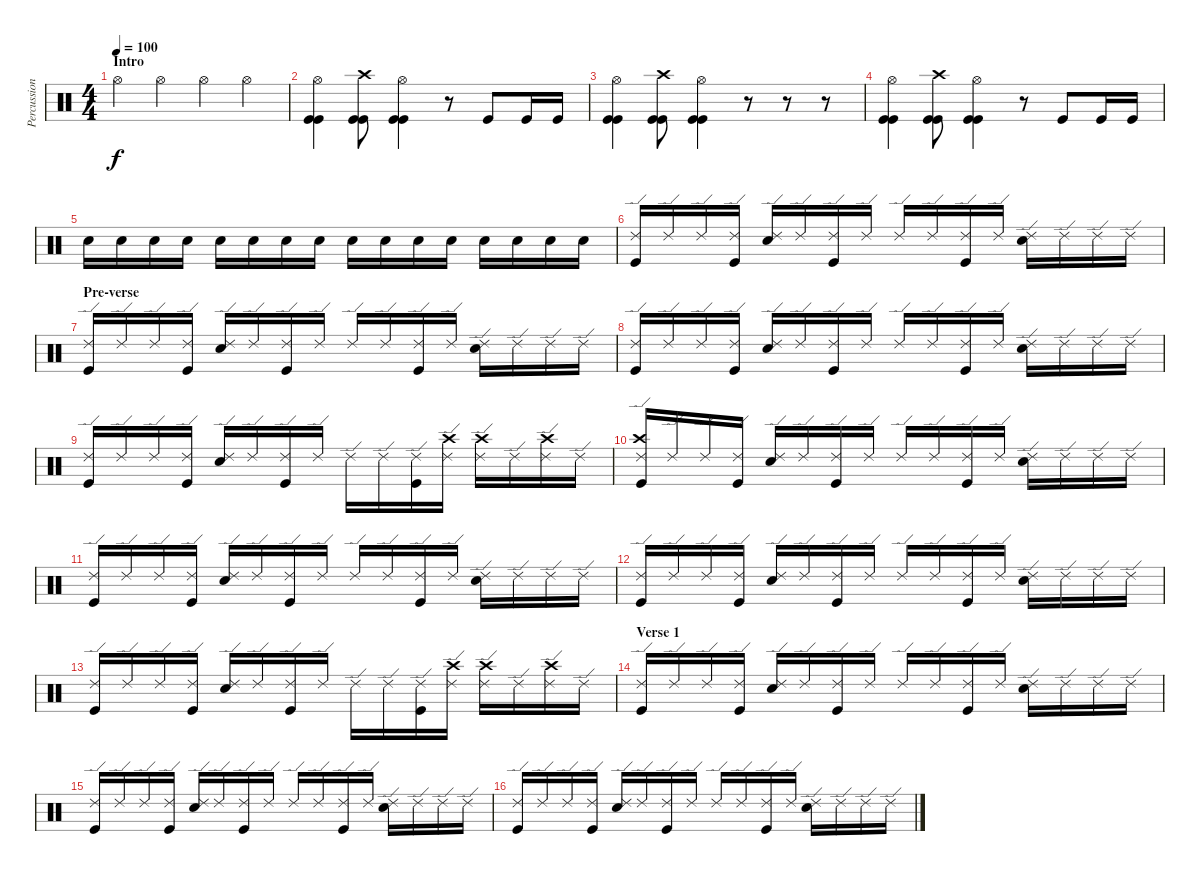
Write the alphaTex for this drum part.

\track ("Percussion" "Percussion") {instrument percussion}
\staff {score}
\articulation defaults
\ts (4 4)
\section ("" "Intro")
\tempo 100
\clef neutral
\ks c "Hi-Hat (open)".4{dy f} "Hi-Hat (open)".4 "Hi-Hat (open)".4 "Hi-Hat (open)".4
|
("Hi-Hat (open)" "Kick (hit)" "Kick (hit)").4 ("Crash high (hit)" "Kick (hit)" "Kick (hit)").8 ("Hi-Hat (open)" "Kick (hit)" "Kick (hit)").4 r.8 "Kick (hit)".8 "Kick (hit)".16 "Kick (hit)".16 |
("Hi-Hat (open)" "Kick (hit)" "Kick (hit)").4 ("Crash high (hit)" "Kick (hit)" "Kick (hit)").8 ("Hi-Hat (open)" "Kick (hit)" "Kick (hit)").4 r.8 r.8 r.8 |
("Hi-Hat (open)" "Kick (hit)" "Kick (hit)").4 ("Crash high (hit)" "Kick (hit)" "Kick (hit)").8 ("Hi-Hat (open)" "Kick (hit)" "Kick (hit)").4 r.8 "Kick (hit)".8 "Kick (hit)".16 "Kick (hit)".16 |
"Snare (hit) 2".16 "Snare (hit) 2".16 "Snare (hit) 2".16 "Snare (hit) 2".16 "Snare (hit) 2".16 "Snare (hit) 2".16 "Snare (hit) 2".16 "Snare (hit) 2".16 "Snare (hit) 2".16 "Snare (hit) 2".16 "Snare (hit) 2".16 "Snare (hit) 2".16 "Snare (hit) 2".16 "Snare (hit) 2".16 "Snare (hit) 2".16 "Snare (hit) 2".16 |
("Ride (edge) 2" "Kick (hit)").16 "Ride (edge) 2".16 "Ride (edge) 2".16 ("Ride (edge) 2" "Kick (hit)").16 ("Ride (edge) 2" "Snare (hit) 2").16 "Ride (edge) 2".16 ("Ride (edge) 2" "Kick (hit)").16 "Ride (edge) 2".16 "Ride (edge) 2".16 "Ride (edge) 2".16 ("Ride (edge) 2" "Kick (hit)").16 "Ride (edge) 2".16 ("Ride (edge) 2" "Snare (hit) 2").16 "Ride (edge) 2".16 "Ride (edge) 2".16 "Ride (edge) 2".16 |
\section ("" "Pre-verse")
("Ride (edge) 2" "Kick (hit)").16 "Ride (edge) 2".16 "Ride (edge) 2".16 ("Ride (edge) 2" "Kick (hit)").16 ("Ride (edge) 2" "Snare (hit) 2").16 "Ride (edge) 2".16 ("Ride (edge) 2" "Kick (hit)").16 "Ride (edge) 2".16 "Ride (edge) 2".16 "Ride (edge) 2".16 ("Ride (edge) 2" "Kick (hit)").16 "Ride (edge) 2".16 ("Ride (edge) 2" "Snare (hit) 2").16 "Ride (edge) 2".16 "Ride (edge) 2".16 "Ride (edge) 2".16 |
("Ride (edge) 2" "Kick (hit)").16 "Ride (edge) 2".16 "Ride (edge) 2".16 ("Ride (edge) 2" "Kick (hit)").16 ("Ride (edge) 2" "Snare (hit) 2").16 "Ride (edge) 2".16 ("Ride (edge) 2" "Kick (hit)").16 "Ride (edge) 2".16 "Ride (edge) 2".16 "Ride (edge) 2".16 ("Ride (edge) 2" "Kick (hit)").16 "Ride (edge) 2".16 ("Ride (edge) 2" "Snare (hit) 2").16 "Ride (edge) 2".16 "Ride (edge) 2".16 "Ride (edge) 2".16 |
("Ride (edge) 2" "Kick (hit)").16 "Ride (edge) 2".16 "Ride (edge) 2".16 ("Ride (edge) 2" "Kick (hit)").16 ("Ride (edge) 2" "Snare (hit) 2").16 "Ride (edge) 2".16 ("Ride (edge) 2" "Kick (hit)").16 "Ride (edge) 2".16 "Ride (edge) 2".16 "Ride (edge) 2".16 ("Ride (edge) 2" "Kick (hit)").16 ("Ride (edge) 2" "Crash high (hit)").16 ("Ride (edge) 2" "Crash high (hit)").16 "Ride (edge) 2".16 ("Ride (edge) 2" "Crash high (hit)").16 "Ride (edge) 2".16 |
("Ride (edge) 2" "Crash high (hit)" "Kick (hit)").16 "Ride (edge) 2".16 "Ride (edge) 2".16 ("Ride (edge) 2" "Kick (hit)").16 ("Ride (edge) 2" "Snare (hit) 2").16 "Ride (edge) 2".16 ("Ride (edge) 2" "Kick (hit)").16 "Ride (edge) 2".16 "Ride (edge) 2".16 "Ride (edge) 2".16 ("Ride (edge) 2" "Kick (hit)").16 "Ride (edge) 2".16 ("Ride (edge) 2" "Snare (hit) 2").16 "Ride (edge) 2".16 "Ride (edge) 2".16 "Ride (edge) 2".16 |
("Ride (edge) 2" "Kick (hit)").16 "Ride (edge) 2".16 "Ride (edge) 2".16 ("Ride (edge) 2" "Kick (hit)").16 ("Ride (edge) 2" "Snare (hit) 2").16 "Ride (edge) 2".16 ("Ride (edge) 2" "Kick (hit)").16 "Ride (edge) 2".16 "Ride (edge) 2".16 "Ride (edge) 2".16 ("Ride (edge) 2" "Kick (hit)").16 "Ride (edge) 2".16 ("Ride (edge) 2" "Snare (hit) 2").16 "Ride (edge) 2".16 "Ride (edge) 2".16 "Ride (edge) 2".16 |
("Ride (edge) 2" "Kick (hit)").16 "Ride (edge) 2".16 "Ride (edge) 2".16 ("Ride (edge) 2" "Kick (hit)").16 ("Ride (edge) 2" "Snare (hit) 2").16 "Ride (edge) 2".16 ("Ride (edge) 2" "Kick (hit)").16 "Ride (edge) 2".16 "Ride (edge) 2".16 "Ride (edge) 2".16 ("Ride (edge) 2" "Kick (hit)").16 "Ride (edge) 2".16 ("Ride (edge) 2" "Snare (hit) 2").16 "Ride (edge) 2".16 "Ride (edge) 2".16 "Ride (edge) 2".16 |
("Ride (edge) 2" "Kick (hit)").16 "Ride (edge) 2".16 "Ride (edge) 2".16 ("Ride (edge) 2" "Kick (hit)").16 ("Ride (edge) 2" "Snare (hit) 2").16 "Ride (edge) 2".16 ("Ride (edge) 2" "Kick (hit)").16 "Ride (edge) 2".16 "Ride (edge) 2".16 "Ride (edge) 2".16 ("Ride (edge) 2" "Kick (hit)").16 ("Ride (edge) 2" "Crash high (hit)").16 ("Ride (edge) 2" "Crash high (hit)").16 "Ride (edge) 2".16 ("Ride (edge) 2" "Crash high (hit)").16 "Ride (edge) 2".16 |
\section ("" "Verse 1")
("Ride (edge) 2" "Kick (hit)").16 "Ride (edge) 2".16 "Ride (edge) 2".16 ("Ride (edge) 2" "Kick (hit)").16 ("Ride (edge) 2" "Snare (hit) 2").16 "Ride (edge) 2".16 ("Ride (edge) 2" "Kick (hit)").16 "Ride (edge) 2".16 "Ride (edge) 2".16 "Ride (edge) 2".16 ("Ride (edge) 2" "Kick (hit)").16 "Ride (edge) 2".16 ("Ride (edge) 2" "Snare (hit) 2").16 "Ride (edge) 2".16 "Ride (edge) 2".16 "Ride (edge) 2".16 |
("Ride (edge) 2" "Kick (hit)").16 "Ride (edge) 2".16 "Ride (edge) 2".16 ("Ride (edge) 2" "Kick (hit)").16 ("Ride (edge) 2" "Snare (hit) 2").16 "Ride (edge) 2".16 ("Ride (edge) 2" "Kick (hit)").16 "Ride (edge) 2".16 "Ride (edge) 2".16 "Ride (edge) 2".16 ("Ride (edge) 2" "Kick (hit)").16 "Ride (edge) 2".16 ("Ride (edge) 2" "Snare (hit) 2").16 "Ride (edge) 2".16 "Ride (edge) 2".16 "Ride (edge) 2".16 |
("Ride (edge) 2" "Kick (hit)").16 "Ride (edge) 2".16 "Ride (edge) 2".16 ("Ride (edge) 2" "Kick (hit)").16 ("Ride (edge) 2" "Snare (hit) 2").16 "Ride (edge) 2".16 ("Ride (edge) 2" "Kick (hit)").16 "Ride (edge) 2".16 "Ride (edge) 2".16 "Ride (edge) 2".16 ("Ride (edge) 2" "Kick (hit)").16 "Ride (edge) 2".16 ("Ride (edge) 2" "Snare (hit) 2").16 "Ride (edge) 2".16 "Ride (edge) 2".16 "Ride (edge) 2".16
